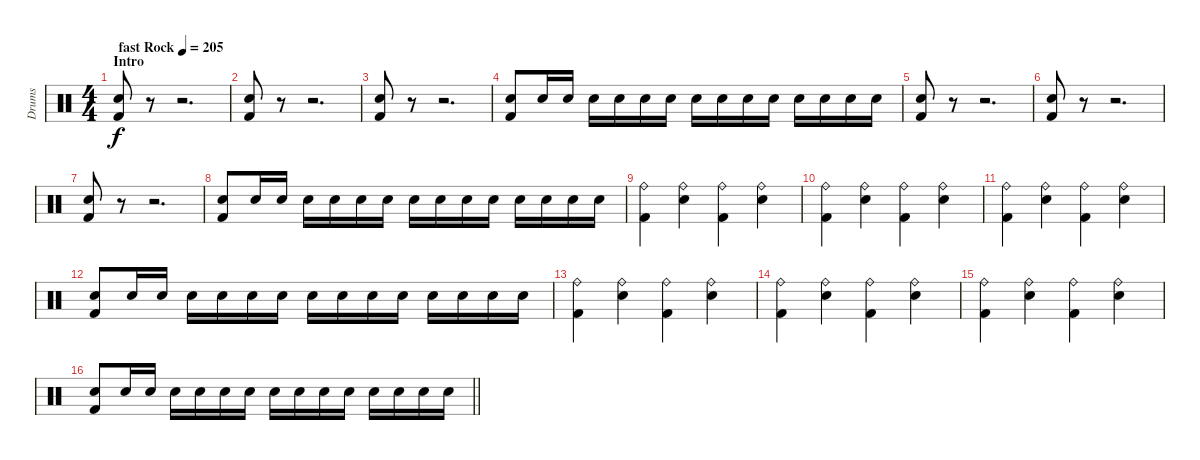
\track ("Drums" "Drums") {instrument percussion}
\staff {score}
\articulation defaults
\ts (4 4)
\section ("" "Intro")
\tempo (205 "fast Rock")
\clef neutral
\ks c
("Snare (hit) 2" "Kick (hit) 2").8{dy f} r.8 r.2{d} |
("Snare (hit) 2" "Kick (hit) 2").8 r.8 r.2{d} |
("Snare (hit) 2" "Kick (hit) 2").8 r.8 r.2{d} |
("Snare (hit) 2" "Kick (hit) 2").8 "Snare (hit) 2".16 "Snare (hit) 2".16 "Snare (hit) 2".16 "Snare (hit) 2".16 "Snare (hit) 2".16 "Snare (hit) 2".16 "Snare (hit) 2".16 "Snare (hit) 2".16 "Snare (hit) 2".16 "Snare (hit) 2".16 "Snare (hit) 2".16 "Snare (hit) 2".16 "Snare (hit) 2".16 "Snare (hit) 2".16 |
("Snare (hit) 2" "Kick (hit) 2").8 r.8 r.2{d} |
("Snare (hit) 2" "Kick (hit) 2").8 r.8 r.2{d} |
("Snare (hit) 2" "Kick (hit) 2").8 r.8 r.2{d} |
("Snare (hit) 2" "Kick (hit) 2").8 "Snare (hit) 2".16 "Snare (hit) 2".16 "Snare (hit) 2".16 "Snare (hit) 2".16 "Snare (hit) 2".16 "Snare (hit) 2".16 "Snare (hit) 2".16 "Snare (hit) 2".16 "Snare (hit) 2".16 "Snare (hit) 2".16 "Snare (hit) 2".16 "Snare (hit) 2".16 "Snare (hit) 2".16 "Snare (hit) 2".16 |
("Ride (bell)" "Kick (hit) 2").4 ("Ride (bell)" "Snare (hit) 2").4 ("Ride (bell)" "Kick (hit) 2").4 ("Ride (bell)" "Snare (hit) 2").4 |
("Ride (bell)" "Kick (hit) 2").4 ("Ride (bell)" "Snare (hit) 2").4 ("Ride (bell)" "Kick (hit) 2").4 ("Ride (bell)" "Snare (hit) 2").4 |
("Ride (bell)" "Kick (hit) 2").4 ("Ride (bell)" "Snare (hit) 2").4 ("Ride (bell)" "Kick (hit) 2").4 ("Ride (bell)" "Snare (hit) 2").4 |
("Snare (hit) 2" "Kick (hit) 2").8 "Snare (hit) 2".16 "Snare (hit) 2".16 "Snare (hit) 2".16 "Snare (hit) 2".16 "Snare (hit) 2".16 "Snare (hit) 2".16 "Snare (hit) 2".16 "Snare (hit) 2".16 "Snare (hit) 2".16 "Snare (hit) 2".16 "Snare (hit) 2".16 "Snare (hit) 2".16 "Snare (hit) 2".16 "Snare (hit) 2".16 |
("Ride (bell)" "Kick (hit) 2").4 ("Ride (bell)" "Snare (hit) 2").4 ("Ride (bell)" "Kick (hit) 2").4 ("Ride (bell)" "Snare (hit) 2").4 |
("Ride (bell)" "Kick (hit) 2").4 ("Ride (bell)" "Snare (hit) 2").4 ("Ride (bell)" "Kick (hit) 2").4 ("Ride (bell)" "Snare (hit) 2").4 |
("Ride (bell)" "Kick (hit) 2").4 ("Ride (bell)" "Snare (hit) 2").4 ("Ride (bell)" "Kick (hit) 2").4 ("Ride (bell)" "Snare (hit) 2").4 |
\barLineRight lightlight
("Snare (hit) 2" "Kick (hit) 2").8 "Snare (hit) 2".16 "Snare (hit) 2".16 "Snare (hit) 2".16 "Snare (hit) 2".16 "Snare (hit) 2".16 "Snare (hit) 2".16 "Snare (hit) 2".16 "Snare (hit) 2".16 "Snare (hit) 2".16 "Snare (hit) 2".16 "Snare (hit) 2".16 "Snare (hit) 2".16 "Snare (hit) 2".16 "Snare (hit) 2".16
